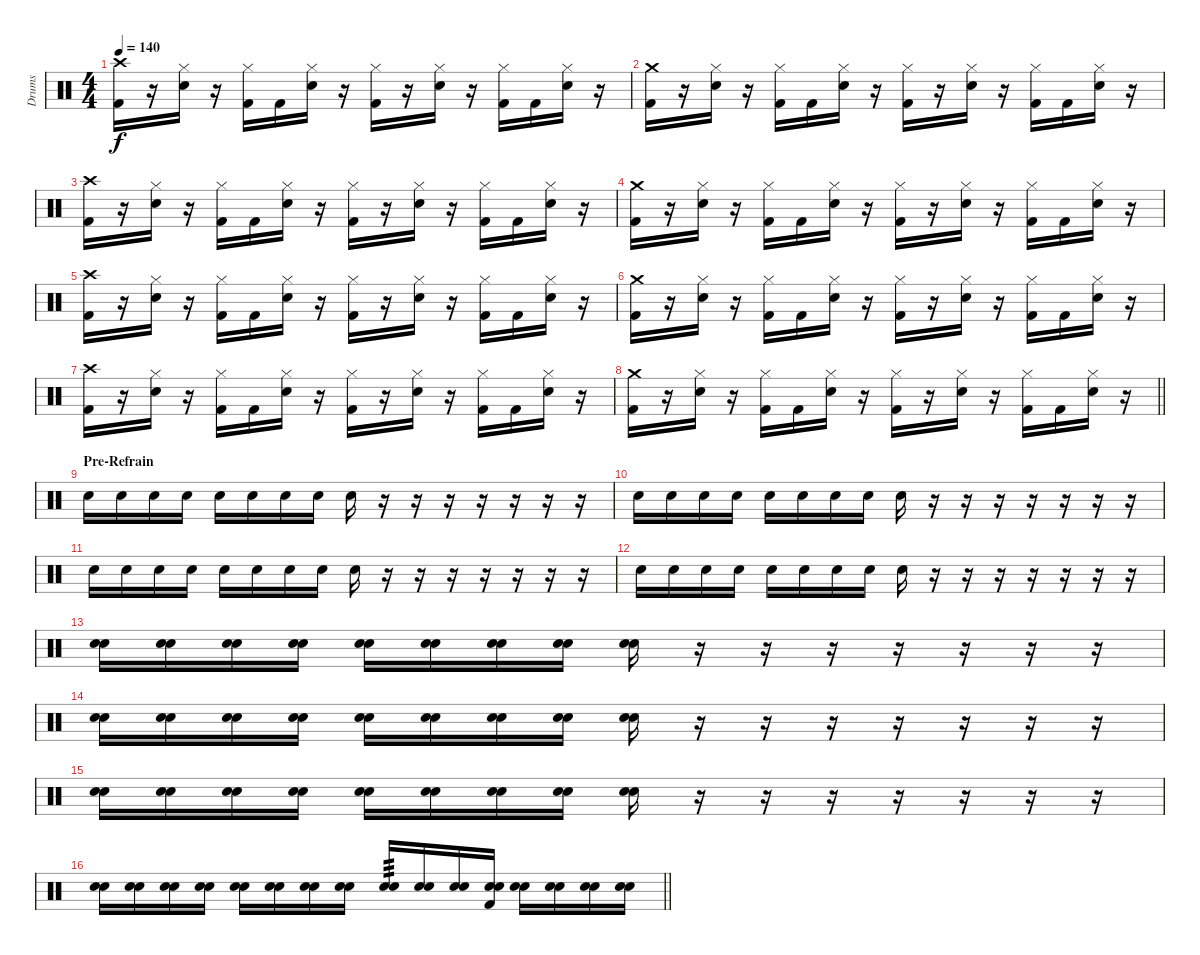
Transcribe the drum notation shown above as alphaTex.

\track ("Drums" "Drums") {instrument percussion}
\staff {score}
\articulation defaults
\ts (4 4)
\tempo 140
\clef neutral
\ks c
("Crash high (hit)" "Kick (hit) 2").16{dy f} r.16 ("Hi-Hat (closed)" "Electric Snare (hit)").16 r.16 ("Hi-Hat (closed)" "Kick (hit) 2").16 "Kick (hit) 2".16 ("Hi-Hat (closed)" "Electric Snare (hit)").16 r.16 ("Hi-Hat (closed)" "Kick (hit) 2").16 r.16 ("Hi-Hat (closed)" "Electric Snare (hit)").16 r.16 ("Hi-Hat (closed)" "Kick (hit) 2").16 "Kick (hit) 2".16 ("Hi-Hat (closed)" "Electric Snare (hit)").16 r.16 |
("Crash medium (hit)" "Kick (hit) 2").16 r.16 ("Hi-Hat (closed)" "Electric Snare (hit)").16 r.16 ("Hi-Hat (closed)" "Kick (hit) 2").16 "Kick (hit) 2".16 ("Hi-Hat (closed)" "Electric Snare (hit)").16 r.16 ("Hi-Hat (closed)" "Kick (hit) 2").16 r.16 ("Hi-Hat (closed)" "Electric Snare (hit)").16 r.16 ("Hi-Hat (closed)" "Kick (hit) 2").16 "Kick (hit) 2".16 ("Hi-Hat (closed)" "Electric Snare (hit)").16 r.16 |
("Crash high (hit)" "Kick (hit) 2").16 r.16 ("Hi-Hat (closed)" "Electric Snare (hit)").16 r.16 ("Hi-Hat (closed)" "Kick (hit) 2").16 "Kick (hit) 2".16 ("Hi-Hat (closed)" "Electric Snare (hit)").16 r.16 ("Hi-Hat (closed)" "Kick (hit) 2").16 r.16 ("Hi-Hat (closed)" "Electric Snare (hit)").16 r.16 ("Hi-Hat (closed)" "Kick (hit) 2").16 "Kick (hit) 2".16 ("Hi-Hat (closed)" "Electric Snare (hit)").16 r.16 |
("Crash medium (hit)" "Kick (hit) 2").16 r.16 ("Hi-Hat (closed)" "Electric Snare (hit)").16 r.16 ("Hi-Hat (closed)" "Kick (hit) 2").16 "Kick (hit) 2".16 ("Hi-Hat (closed)" "Electric Snare (hit)").16 r.16 ("Hi-Hat (closed)" "Kick (hit) 2").16 r.16 ("Hi-Hat (closed)" "Electric Snare (hit)").16 r.16 ("Hi-Hat (closed)" "Kick (hit) 2").16 "Kick (hit) 2".16 ("Hi-Hat (closed)" "Electric Snare (hit)").16 r.16 |
("Crash high (hit)" "Kick (hit) 2").16 r.16 ("Hi-Hat (closed)" "Electric Snare (hit)").16 r.16 ("Hi-Hat (closed)" "Kick (hit) 2").16 "Kick (hit) 2".16 ("Hi-Hat (closed)" "Electric Snare (hit)").16 r.16 ("Hi-Hat (closed)" "Kick (hit) 2").16 r.16 ("Hi-Hat (closed)" "Electric Snare (hit)").16 r.16 ("Hi-Hat (closed)" "Kick (hit) 2").16 "Kick (hit) 2".16 ("Hi-Hat (closed)" "Electric Snare (hit)").16 r.16 |
("Crash medium (hit)" "Kick (hit) 2").16 r.16 ("Hi-Hat (closed)" "Electric Snare (hit)").16 r.16 ("Hi-Hat (closed)" "Kick (hit) 2").16 "Kick (hit) 2".16 ("Hi-Hat (closed)" "Electric Snare (hit)").16 r.16 ("Hi-Hat (closed)" "Kick (hit) 2").16 r.16 ("Hi-Hat (closed)" "Electric Snare (hit)").16 r.16 ("Hi-Hat (closed)" "Kick (hit) 2").16 "Kick (hit) 2".16 ("Hi-Hat (closed)" "Electric Snare (hit)").16 r.16 |
("Crash high (hit)" "Kick (hit) 2").16 r.16 ("Hi-Hat (closed)" "Electric Snare (hit)").16 r.16 ("Hi-Hat (closed)" "Kick (hit) 2").16 "Kick (hit) 2".16 ("Hi-Hat (closed)" "Electric Snare (hit)").16 r.16 ("Hi-Hat (closed)" "Kick (hit) 2").16 r.16 ("Hi-Hat (closed)" "Electric Snare (hit)").16 r.16 ("Hi-Hat (closed)" "Kick (hit) 2").16 "Kick (hit) 2".16 ("Hi-Hat (closed)" "Electric Snare (hit)").16 r.16 |
\barLineRight lightlight
("Crash medium (hit)" "Kick (hit) 2").16 r.16 ("Hi-Hat (closed)" "Electric Snare (hit)").16 r.16 ("Hi-Hat (closed)" "Kick (hit) 2").16 "Kick (hit) 2".16 ("Hi-Hat (closed)" "Electric Snare (hit)").16 r.16 ("Hi-Hat (closed)" "Kick (hit) 2").16 r.16 ("Hi-Hat (closed)" "Electric Snare (hit)").16 r.16 ("Hi-Hat (closed)" "Kick (hit) 2").16 "Kick (hit) 2".16 ("Hi-Hat (closed)" "Electric Snare (hit)").16 r.16 |
\section ("" "Pre-Refrain")
"Snare (hit) 2".16 "Snare (hit) 2".16 "Snare (hit) 2".16 "Snare (hit) 2".16 "Snare (hit) 2".16 "Snare (hit) 2".16 "Snare (hit) 2".16 "Snare (hit) 2".16 "Snare (hit) 2".16 r.16 r.16 r.16 r.16 r.16 r.16 r.16 |
"Snare (hit) 2".16 "Snare (hit) 2".16 "Snare (hit) 2".16 "Snare (hit) 2".16 "Snare (hit) 2".16 "Snare (hit) 2".16 "Snare (hit) 2".16 "Snare (hit) 2".16 "Snare (hit) 2".16 r.16 r.16 r.16 r.16 r.16 r.16 r.16 |
"Snare (hit) 2".16 "Snare (hit) 2".16 "Snare (hit) 2".16 "Snare (hit) 2".16 "Snare (hit) 2".16 "Snare (hit) 2".16 "Snare (hit) 2".16 "Snare (hit) 2".16 "Snare (hit) 2".16 r.16 r.16 r.16 r.16 r.16 r.16 r.16 |
"Snare (hit) 2".16 "Snare (hit) 2".16 "Snare (hit) 2".16 "Snare (hit) 2".16 "Snare (hit) 2".16 "Snare (hit) 2".16 "Snare (hit) 2".16 "Snare (hit) 2".16 "Snare (hit) 2".16 r.16 r.16 r.16 r.16 r.16 r.16 r.16 |
("Electric Snare (hit)" "Snare (hit) 2").16{volume 16} ("Electric Snare (hit)" "Snare (hit) 2").16 ("Electric Snare (hit)" "Snare (hit) 2").16 ("Electric Snare (hit)" "Snare (hit) 2").16 ("Electric Snare (hit)" "Snare (hit) 2").16 ("Electric Snare (hit)" "Snare (hit) 2").16 ("Electric Snare (hit)" "Snare (hit) 2").16 ("Electric Snare (hit)" "Snare (hit) 2").16 ("Electric Snare (hit)" "Snare (hit) 2").16 r.16 r.16 r.16 r.16 r.16 r.16 r.16 |
("Electric Snare (hit)" "Snare (hit) 2").16{volume 16} ("Electric Snare (hit)" "Snare (hit) 2").16 ("Electric Snare (hit)" "Snare (hit) 2").16 ("Electric Snare (hit)" "Snare (hit) 2").16 ("Electric Snare (hit)" "Snare (hit) 2").16 ("Electric Snare (hit)" "Snare (hit) 2").16 ("Electric Snare (hit)" "Snare (hit) 2").16 ("Electric Snare (hit)" "Snare (hit) 2").16 ("Electric Snare (hit)" "Snare (hit) 2").16 r.16 r.16 r.16 r.16 r.16 r.16 r.16 |
("Electric Snare (hit)" "Snare (hit) 2").16{volume 16} ("Electric Snare (hit)" "Snare (hit) 2").16 ("Electric Snare (hit)" "Snare (hit) 2").16 ("Electric Snare (hit)" "Snare (hit) 2").16 ("Electric Snare (hit)" "Snare (hit) 2").16 ("Electric Snare (hit)" "Snare (hit) 2").16 ("Electric Snare (hit)" "Snare (hit) 2").16 ("Electric Snare (hit)" "Snare (hit) 2").16 ("Electric Snare (hit)" "Snare (hit) 2").16 r.16 r.16 r.16 r.16 r.16 r.16 r.16 |
\barLineRight lightlight
("Electric Snare (hit)" "Snare (hit) 2").16 ("Electric Snare (hit)" "Snare (hit) 2").16 ("Electric Snare (hit)" "Snare (hit) 2").16 ("Electric Snare (hit)" "Snare (hit) 2").16 ("Electric Snare (hit)" "Snare (hit) 2").16 ("Electric Snare (hit)" "Snare (hit) 2").16 ("Electric Snare (hit)" "Snare (hit) 2").16 ("Electric Snare (hit)" "Snare (hit) 2").16 ("Electric Snare (hit)" "Snare (hit) 2").16{tp 3} ("Electric Snare (hit)" "Snare (hit) 2").16 ("Electric Snare (hit)" "Snare (hit) 2").16 ("Electric Snare (hit)" "Snare (hit) 2" "Kick (hit) 2").16 ("Electric Snare (hit)" "Snare (hit) 2").16 ("Electric Snare (hit)" "Snare (hit) 2").16 ("Electric Snare (hit)" "Snare (hit) 2").16 ("Electric Snare (hit)" "Snare (hit) 2").16
